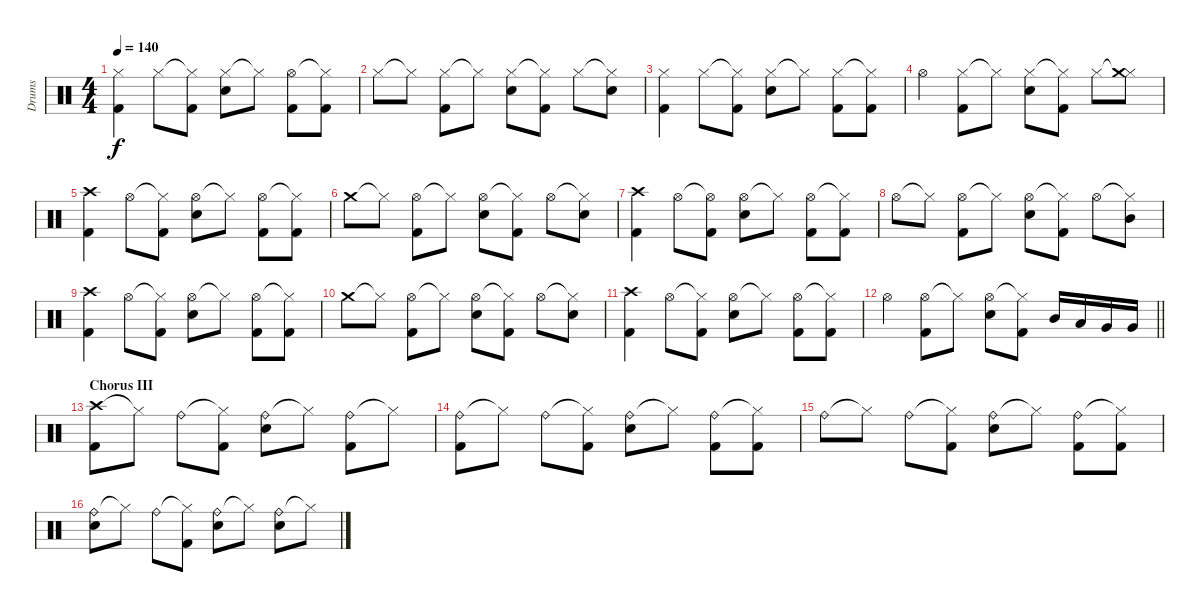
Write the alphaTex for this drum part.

\track ("Drums" "Drums") {instrument percussion}
\staff {score}
\articulation defaults
\ts (4 4)
\tempo 140
\clef neutral
\ks c
("Hi-Hat (closed)" "Kick (hit) 2").4{dy f} "Hi-Hat (closed)".8 ("Hi-Hat (closed)"{t} "Kick (hit) 2").8 ("Hi-Hat (closed)" "Snare (hit) 2").8 "Hi-Hat (closed)"{t}.8 ("Hi-Hat (open)" "Kick (hit) 2").8 ("Hi-Hat (closed)"{t} "Kick (hit) 2").8 |
"Hi-Hat (closed)".8 "Hi-Hat (closed)"{t}.8 ("Hi-Hat (closed)" "Kick (hit) 2").8 "Hi-Hat (closed)"{t}.8 ("Hi-Hat (closed)" "Snare (hit) 2").8 ("Hi-Hat (closed)"{t} "Kick (hit) 2").8 "Hi-Hat (closed)".8 ("Hi-Hat (closed)"{t} "Snare (hit) 2").8 |
("Hi-Hat (closed)" "Kick (hit) 2").4 "Hi-Hat (closed)".8 ("Hi-Hat (closed)"{t} "Kick (hit) 2").8 ("Hi-Hat (closed)" "Snare (hit) 2").8 "Hi-Hat (closed)"{t}.8 ("Hi-Hat (closed)" "Kick (hit) 2").8 ("Hi-Hat (closed)"{t} "Kick (hit) 2").8 |
"Hi-Hat (open)".4 ("Hi-Hat (closed)" "Kick (hit) 2").8 "Hi-Hat (closed)"{t}.8 ("Hi-Hat (closed)" "Snare (hit) 2").8 ("Hi-Hat (closed)"{t} "Kick (hit) 2").8 "Hi-Hat (closed)".8 ("Hi-Hat (closed)"{t} "Crash medium (hit)").8 |
("Crash high (hit)" "Kick (hit) 2").4 "Hi-Hat (open)".8 ("Hi-Hat (closed)"{t} "Kick (hit) 2").8 ("Hi-Hat (open)" "Snare (hit) 2").8 "Hi-Hat (closed)"{t}.8 ("Hi-Hat (open)" "Kick (hit) 2").8 ("Hi-Hat (closed)"{t} "Kick (hit) 2").8 |
"Crash medium (hit)".8 "Hi-Hat (closed)"{t}.8 ("Hi-Hat (open)" "Kick (hit) 2").8 "Hi-Hat (closed)"{t}.8 ("Hi-Hat (open)" "Snare (hit) 2").8 ("Hi-Hat (closed)"{t} "Kick (hit) 2").8 "Hi-Hat (open)".8 ("Hi-Hat (closed)"{t} "Snare (hit) 2").8 |
("Crash high (hit)" "Kick (hit) 2").4 "Hi-Hat (open)".8 ("Hi-Hat (open)"{t} "Kick (hit) 2").8 ("Hi-Hat (open)" "Snare (hit) 2").8 "Hi-Hat (closed)"{t}.8 ("Hi-Hat (open)" "Kick (hit) 2").8 ("Hi-Hat (closed)"{t} "Kick (hit) 2").8 |
"Hi-Hat (open)".8 "Hi-Hat (closed)"{t}.8 ("Hi-Hat (open)" "Kick (hit) 2").8 "Hi-Hat (closed)"{t}.8 ("Hi-Hat (open)" "Snare (hit) 2").8 ("Hi-Hat (closed)"{t} "Kick (hit) 2").8 "Hi-Hat (open)".8 ("Hi-Hat (closed)"{t} "Mid Tom (hit)").8 |
("Crash high (hit)" "Kick (hit) 2").4 "Hi-Hat (open)".8 ("Hi-Hat (closed)"{t} "Kick (hit) 2").8 ("Hi-Hat (open)" "Snare (hit) 2").8 "Hi-Hat (closed)"{t}.8 ("Hi-Hat (open)" "Kick (hit) 2").8 ("Hi-Hat (closed)"{t} "Kick (hit) 2").8 |
"Crash medium (hit)".8 "Hi-Hat (closed)"{t}.8 ("Hi-Hat (open)" "Kick (hit) 2").8 "Hi-Hat (closed)"{t}.8 ("Hi-Hat (open)" "Snare (hit) 2").8 ("Hi-Hat (closed)"{t} "Kick (hit) 2").8 "Hi-Hat (open)".8 ("Hi-Hat (closed)"{t} "Snare (hit) 2").8 |
("Crash high (hit)" "Kick (hit) 2").4 "Hi-Hat (open)".8 ("Hi-Hat (closed)"{t} "Kick (hit) 2").8 ("Hi-Hat (open)" "Snare (hit) 2").8 "Hi-Hat (closed)"{t}.8 ("Hi-Hat (open)" "Kick (hit) 2").8 ("Hi-Hat (closed)"{t} "Kick (hit) 2").8 |
\barLineRight lightlight "Hi-Hat (open)".4
("Hi-Hat (open)" "Kick (hit) 2").8 "Hi-Hat (closed)"{t}.8 ("Hi-Hat (open)" "Snare (hit) 2").8 ("Hi-Hat (closed)"{t} "Kick (hit) 2").8 "Mid Tom (hit)".16 "Low Tom (hit)".16 "Very Low Tom (hit)".16 "Very Low Tom (hit)".16 |
\section ("" "Chorus III")
("Crash high (hit)" "Kick (hit) 2").8 "Hi-Hat (closed)"{t}.8 "Ride (bell)".8 ("Hi-Hat (closed)"{t} "Kick (hit) 2").8 ("Ride (bell)" "Snare (hit) 2").8 "Hi-Hat (closed)"{t}.8 ("Ride (bell)" "Kick (hit) 2").8 "Hi-Hat (closed)"{t}.8 |
("Ride (bell)" "Kick (hit) 2").8 "Hi-Hat (closed)"{t}.8 "Ride (bell)".8 ("Hi-Hat (closed)"{t} "Kick (hit) 2").8 ("Ride (bell)" "Snare (hit) 2").8 "Hi-Hat (closed)"{t}.8 ("Ride (bell)" "Kick (hit) 2").8 ("Hi-Hat (closed)"{t} "Kick (hit) 2").8 |
"Ride (bell)".8 "Hi-Hat (closed)"{t}.8 "Ride (bell)".8 ("Hi-Hat (closed)"{t} "Kick (hit) 2").8 ("Ride (bell)" "Snare (hit) 2").8 "Hi-Hat (closed)"{t}.8 ("Ride (bell)" "Kick (hit) 2").8 ("Hi-Hat (closed)"{t} "Kick (hit) 2").8 |
("Ride (bell)" "Snare (hit) 2").8 "Hi-Hat (closed)"{t}.8 "Ride (bell)".8 ("Hi-Hat (closed)"{t} "Kick (hit) 2").8 ("Ride (bell)" "Snare (hit) 2").8 "Hi-Hat (closed)"{t}.8 ("Ride (bell)" "Snare (hit) 2").8 "Hi-Hat (closed)"{t}.8
